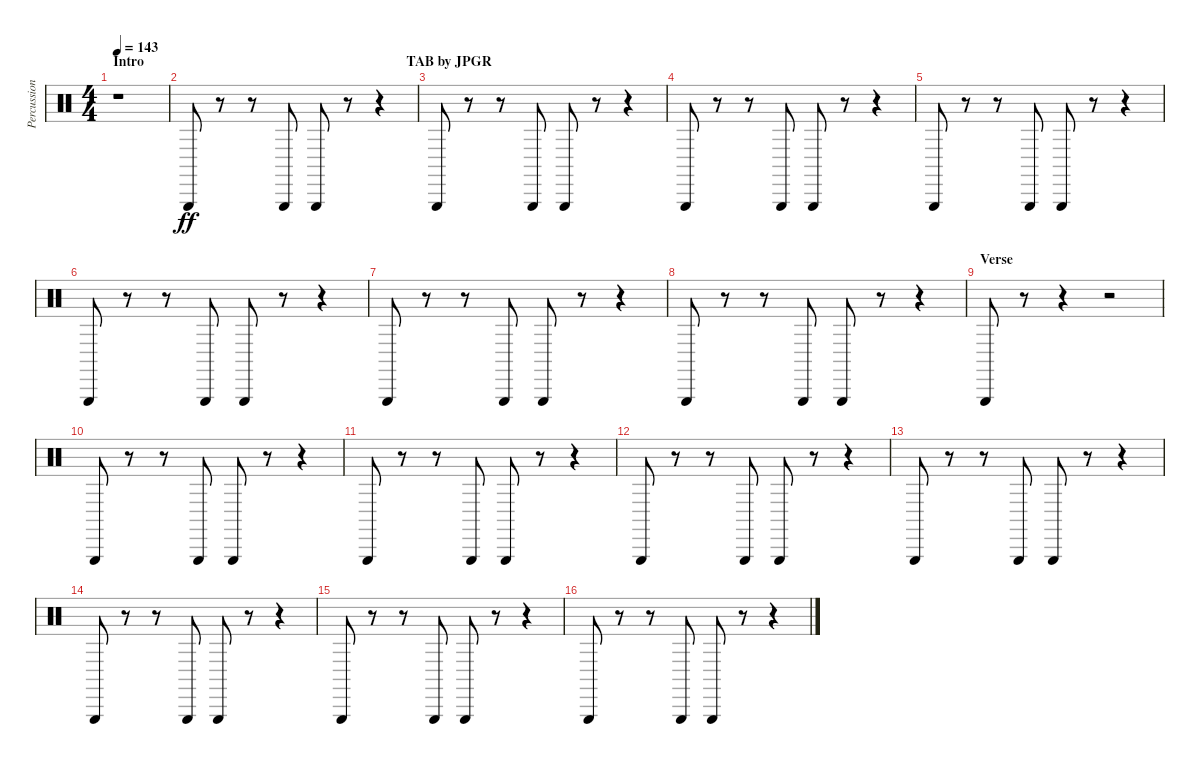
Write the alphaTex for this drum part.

\track ("Percussion" "Percussion") {instrument percussion}
\staff {score}
\articulation defaults
\ts (4 4)
\section ("" "Intro                                                                           TAB by JPGR")
\tempo 143
\clef neutral
\ks c
r.1{dy ff} |
"Triangle (hit)".8{volume 14 balance 2} r.8 r.8 "Triangle (hit)".8 "Triangle (hit)".8 r.8 r.4 |
"Triangle (hit)".8 r.8 r.8 "Triangle (hit)".8 "Triangle (hit)".8 r.8 r.4 |
"Triangle (hit)".8 r.8 r.8 "Triangle (hit)".8 "Triangle (hit)".8 r.8 r.4 |
"Triangle (hit)".8 r.8 r.8 "Triangle (hit)".8 "Triangle (hit)".8 r.8 r.4 |
"Triangle (hit)".8 r.8 r.8 "Triangle (hit)".8 "Triangle (hit)".8 r.8 r.4 |
"Triangle (hit)".8 r.8 r.8 "Triangle (hit)".8 "Triangle (hit)".8 r.8 r.4 |
"Triangle (hit)".8 r.8 r.8 "Triangle (hit)".8 "Triangle (hit)".8 r.8 r.4 |
\section ("" "Verse")
"Triangle (hit)".8 r.8 r.4 r.2 |
"Triangle (hit)".8 r.8 r.8 "Triangle (hit)".8 "Triangle (hit)".8 r.8 r.4 |
"Triangle (hit)".8 r.8 r.8 "Triangle (hit)".8 "Triangle (hit)".8 r.8 r.4 |
"Triangle (hit)".8 r.8 r.8 "Triangle (hit)".8 "Triangle (hit)".8 r.8 r.4 |
"Triangle (hit)".8 r.8 r.8 "Triangle (hit)".8 "Triangle (hit)".8 r.8 r.4 |
"Triangle (hit)".8 r.8 r.8 "Triangle (hit)".8 "Triangle (hit)".8 r.8 r.4 |
"Triangle (hit)".8 r.8 r.8 "Triangle (hit)".8 "Triangle (hit)".8 r.8 r.4 |
"Triangle (hit)".8 r.8 r.8 "Triangle (hit)".8 "Triangle (hit)".8 r.8 r.4
